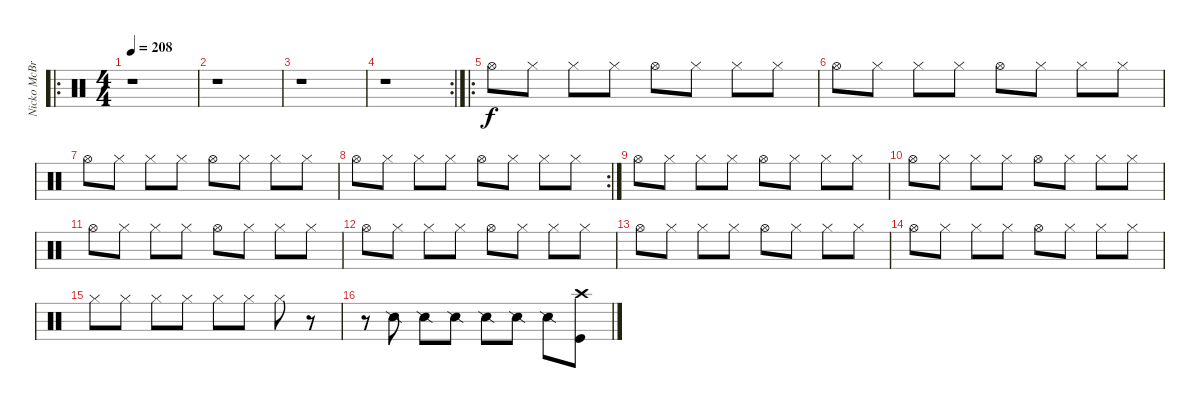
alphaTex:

\track ("Nicko McBrain" "Nicko McBr") {instrument percussion}
\staff {score}
\articulation defaults
\ro
\ts (4 4)
\tempo 208
\clef neutral
\ks c
r.1{dy f} |
r.1 |
r.1 |
\rc 2
r.1 |
\ro "Hi-Hat (open)".8 "Hi-Hat (closed)".8 "Hi-Hat (closed)".8 "Hi-Hat (closed)".8 "Hi-Hat (open)".8 "Hi-Hat (closed)".8 "Hi-Hat (closed)".8 "Hi-Hat (closed)".8
|
"Hi-Hat (open)".8 "Hi-Hat (closed)".8 "Hi-Hat (closed)".8 "Hi-Hat (closed)".8 "Hi-Hat (open)".8 "Hi-Hat (closed)".8 "Hi-Hat (closed)".8 "Hi-Hat (closed)".8 |
"Hi-Hat (open)".8 "Hi-Hat (closed)".8 "Hi-Hat (closed)".8 "Hi-Hat (closed)".8 "Hi-Hat (open)".8 "Hi-Hat (closed)".8 "Hi-Hat (closed)".8 "Hi-Hat (closed)".8 |
\rc 2 "Hi-Hat (open)".8 "Hi-Hat (closed)".8 "Hi-Hat (closed)".8 "Hi-Hat (closed)".8 "Hi-Hat (open)".8 "Hi-Hat (closed)".8 "Hi-Hat (closed)".8 "Hi-Hat (closed)".8
|
"Hi-Hat (open)".8 "Hi-Hat (closed)".8 "Hi-Hat (closed)".8 "Hi-Hat (closed)".8 "Hi-Hat (open)".8 "Hi-Hat (closed)".8 "Hi-Hat (closed)".8 "Hi-Hat (closed)".8 |
"Hi-Hat (open)".8 "Hi-Hat (closed)".8 "Hi-Hat (closed)".8 "Hi-Hat (closed)".8 "Hi-Hat (open)".8 "Hi-Hat (closed)".8 "Hi-Hat (closed)".8 "Hi-Hat (closed)".8 |
"Hi-Hat (open)".8 "Hi-Hat (closed)".8 "Hi-Hat (closed)".8 "Hi-Hat (closed)".8 "Hi-Hat (open)".8 "Hi-Hat (closed)".8 "Hi-Hat (closed)".8 "Hi-Hat (closed)".8 |
"Hi-Hat (open)".8 "Hi-Hat (closed)".8 "Hi-Hat (closed)".8 "Hi-Hat (closed)".8 "Hi-Hat (open)".8 "Hi-Hat (closed)".8 "Hi-Hat (closed)".8 "Hi-Hat (closed)".8 |
"Hi-Hat (open)".8 "Hi-Hat (closed)".8 "Hi-Hat (closed)".8 "Hi-Hat (closed)".8 "Hi-Hat (open)".8 "Hi-Hat (closed)".8 "Hi-Hat (closed)".8 "Hi-Hat (closed)".8 |
"Hi-Hat (open)".8 "Hi-Hat (closed)".8 "Hi-Hat (closed)".8 "Hi-Hat (closed)".8 "Hi-Hat (open)".8 "Hi-Hat (closed)".8 "Hi-Hat (closed)".8 "Hi-Hat (closed)".8 |
"Hi-Hat (closed)".8 "Hi-Hat (closed)".8 "Hi-Hat (closed)".8 "Hi-Hat (closed)".8 "Hi-Hat (closed)".8 "Hi-Hat (closed)".8 "Hi-Hat (closed)".8 r.8 |
r.8 "Snare (side stick) 2".8 "Snare (side stick) 2".8 "Snare (side stick) 2".8 "Snare (side stick) 2".8 "Snare (side stick) 2".8 "Snare (side stick) 2".8 ("Crash high (hit)" "Kick (hit)").8
